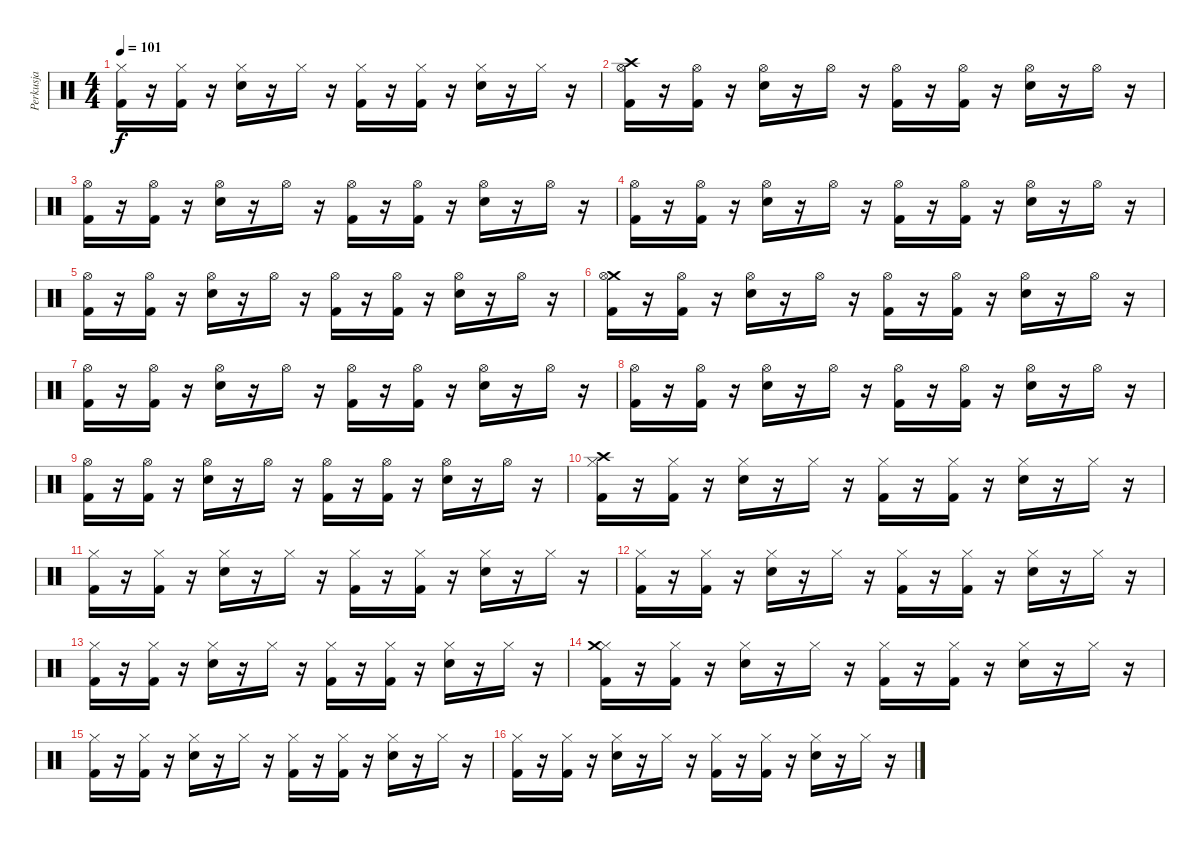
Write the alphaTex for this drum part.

\track ("Perkusja" "Perkusja") {instrument percussion}
\staff {score}
\articulation defaults
\ts (4 4)
\tempo 101
\clef neutral
\ks c
("Kick (hit) 2" "Hi-Hat (closed)").16{dy f} r.16 ("Kick (hit) 2" "Hi-Hat (closed)").16 r.16 ("Snare (hit) 2" "Hi-Hat (closed)").16 r.16 "Hi-Hat (closed)".16 r.16 ("Kick (hit) 2" "Hi-Hat (closed)").16 r.16 ("Kick (hit) 2" "Hi-Hat (closed)").16 r.16 ("Hi-Hat (closed)" "Snare (hit) 2").16 r.16 "Hi-Hat (closed)".16 r.16 |
("Hi-Hat (open)" "Crash high (hit)" "Kick (hit) 2").16 r.16 ("Kick (hit) 2" "Hi-Hat (open)").16 r.16 ("Hi-Hat (open)" "Snare (hit) 2").16 r.16 "Hi-Hat (open)".16 r.16 ("Kick (hit) 2" "Hi-Hat (open)").16 r.16 ("Kick (hit) 2" "Hi-Hat (open)").16 r.16 ("Hi-Hat (open)" "Snare (hit) 2").16 r.16 "Hi-Hat (open)".16 r.16 |
("Hi-Hat (open)" "Kick (hit) 2").16 r.16 ("Kick (hit) 2" "Hi-Hat (open)").16 r.16 ("Hi-Hat (open)" "Snare (hit) 2").16 r.16 "Hi-Hat (open)".16 r.16 ("Kick (hit) 2" "Hi-Hat (open)").16 r.16 ("Kick (hit) 2" "Hi-Hat (open)").16 r.16 ("Hi-Hat (open)" "Snare (hit) 2").16 r.16 "Hi-Hat (open)".16 r.16 |
("Hi-Hat (open)" "Kick (hit) 2").16 r.16 ("Kick (hit) 2" "Hi-Hat (open)").16 r.16 ("Hi-Hat (open)" "Snare (hit) 2").16 r.16 "Hi-Hat (open)".16 r.16 ("Kick (hit) 2" "Hi-Hat (open)").16 r.16 ("Hi-Hat (open)" "Kick (hit) 2").16 r.16 ("Hi-Hat (open)" "Snare (hit) 2").16 r.16 "Hi-Hat (open)".16 r.16 |
("Hi-Hat (open)" "Kick (hit) 2").16 r.16 ("Kick (hit) 2" "Hi-Hat (open)").16 r.16 ("Hi-Hat (open)" "Snare (hit) 2").16 r.16 "Hi-Hat (open)".16 r.16 ("Hi-Hat (open)" "Kick (hit) 2").16 r.16 ("Kick (hit) 2" "Hi-Hat (open)").16 r.16 ("Snare (hit) 2" "Hi-Hat (open)").16 r.16 "Hi-Hat (open)".16 r.16 |
("Crash medium (hit)" "Kick (hit) 2" "Hi-Hat (open)").16 r.16 ("Hi-Hat (open)" "Kick (hit) 2").16 r.16 ("Hi-Hat (open)" "Snare (hit) 2").16 r.16 "Hi-Hat (open)".16 r.16 ("Hi-Hat (open)" "Kick (hit) 2").16 r.16 ("Hi-Hat (open)" "Kick (hit) 2").16 r.16 ("Snare (hit) 2" "Hi-Hat (open)").16 r.16 "Hi-Hat (open)".16 r.16 |
("Kick (hit) 2" "Hi-Hat (open)").16 r.16 ("Hi-Hat (open)" "Kick (hit) 2").16 r.16 ("Snare (hit) 2" "Hi-Hat (open)").16 r.16 "Hi-Hat (open)".16 r.16 ("Kick (hit) 2" "Hi-Hat (open)").16 r.16 ("Kick (hit) 2" "Hi-Hat (open)").16 r.16 ("Snare (hit) 2" "Hi-Hat (open)").16 r.16 "Hi-Hat (open)".16 r.16 |
("Kick (hit) 2" "Hi-Hat (open)").16 r.16 ("Hi-Hat (open)" "Kick (hit) 2").16 r.16 ("Snare (hit) 2" "Hi-Hat (open)").16 r.16 "Hi-Hat (open)".16 r.16 ("Kick (hit) 2" "Hi-Hat (open)").16 r.16 ("Hi-Hat (open)" "Kick (hit) 2").16 r.16 ("Snare (hit) 2" "Hi-Hat (open)").16 r.16 "Hi-Hat (open)".16 r.16 |
("Kick (hit) 2" "Hi-Hat (open)").16 r.16 ("Hi-Hat (open)" "Kick (hit) 2").16 r.16 ("Hi-Hat (open)" "Snare (hit) 2").16 r.16 "Hi-Hat (open)".16 r.16 ("Hi-Hat (open)" "Kick (hit) 2").16 r.16 ("Hi-Hat (open)" "Kick (hit) 2").16 r.16 ("Hi-Hat (open)" "Snare (hit) 2").16 r.16 "Hi-Hat (open)".16 r.16 |
("Crash high (hit)" "Kick (hit) 2" "Hi-Hat (closed)").16 r.16 ("Hi-Hat (closed)" "Kick (hit) 2").16 r.16 ("Hi-Hat (closed)" "Snare (hit) 2").16 r.16 "Hi-Hat (closed)".16 r.16 ("Kick (hit) 2" "Hi-Hat (closed)").16 r.16 ("Hi-Hat (closed)" "Kick (hit) 2").16 r.16 ("Hi-Hat (closed)" "Snare (hit) 2").16 r.16 "Hi-Hat (closed)".16 r.16 |
("Hi-Hat (closed)" "Kick (hit) 2").16 r.16 ("Kick (hit) 2" "Hi-Hat (closed)").16 r.16 ("Snare (hit) 2" "Hi-Hat (closed)").16 r.16 "Hi-Hat (closed)".16 r.16 ("Kick (hit) 2" "Hi-Hat (closed)").16 r.16 ("Kick (hit) 2" "Hi-Hat (closed)").16 r.16 ("Hi-Hat (closed)" "Snare (hit) 2").16 r.16 "Hi-Hat (closed)".16 r.16 |
("Hi-Hat (closed)" "Kick (hit) 2").16 r.16 ("Hi-Hat (closed)" "Kick (hit) 2").16 r.16 ("Snare (hit) 2" "Hi-Hat (closed)").16 r.16 "Hi-Hat (closed)".16 r.16 ("Kick (hit) 2" "Hi-Hat (closed)").16 r.16 ("Kick (hit) 2" "Hi-Hat (closed)").16 r.16 ("Hi-Hat (closed)" "Snare (hit) 2").16 r.16 "Hi-Hat (closed)".16 r.16 |
("Kick (hit) 2" "Hi-Hat (closed)").16 r.16 ("Kick (hit) 2" "Hi-Hat (closed)").16 r.16 ("Hi-Hat (closed)" "Snare (hit) 2").16 r.16 "Hi-Hat (closed)".16 r.16 ("Kick (hit) 2" "Hi-Hat (closed)").16 r.16 ("Kick (hit) 2" "Hi-Hat (closed)").16 r.16 ("Snare (hit) 2" "Hi-Hat (closed)").16 r.16 "Hi-Hat (closed)".16 r.16 |
("Kick (hit) 2" "Hi-Hat (closed)" "Crash medium (hit)").16 r.16 ("Hi-Hat (closed)" "Kick (hit) 2").16 r.16 ("Hi-Hat (closed)" "Snare (hit) 2").16 r.16 "Hi-Hat (closed)".16 r.16 ("Hi-Hat (closed)" "Kick (hit) 2").16 r.16 ("Hi-Hat (closed)" "Kick (hit) 2").16 r.16 ("Snare (hit) 2" "Hi-Hat (closed)").16 r.16 "Hi-Hat (closed)".16 r.16 |
("Kick (hit) 2" "Hi-Hat (closed)").16 r.16 ("Hi-Hat (closed)" "Kick (hit) 2").16 r.16 ("Snare (hit) 2" "Hi-Hat (closed)").16 r.16 "Hi-Hat (closed)".16 r.16 ("Hi-Hat (closed)" "Kick (hit) 2").16 r.16 ("Hi-Hat (closed)" "Kick (hit) 2").16 r.16 ("Snare (hit) 2" "Hi-Hat (closed)").16 r.16 "Hi-Hat (closed)".16 r.16 |
("Hi-Hat (closed)" "Kick (hit) 2").16 r.16 ("Hi-Hat (closed)" "Kick (hit) 2").16 r.16 ("Hi-Hat (closed)" "Snare (hit) 2").16 r.16 "Hi-Hat (closed)".16 r.16 ("Hi-Hat (closed)" "Kick (hit) 2").16 r.16 ("Kick (hit) 2" "Hi-Hat (closed)").16 r.16 ("Hi-Hat (closed)" "Snare (hit) 2").16 r.16 "Hi-Hat (closed)".16 r.16
